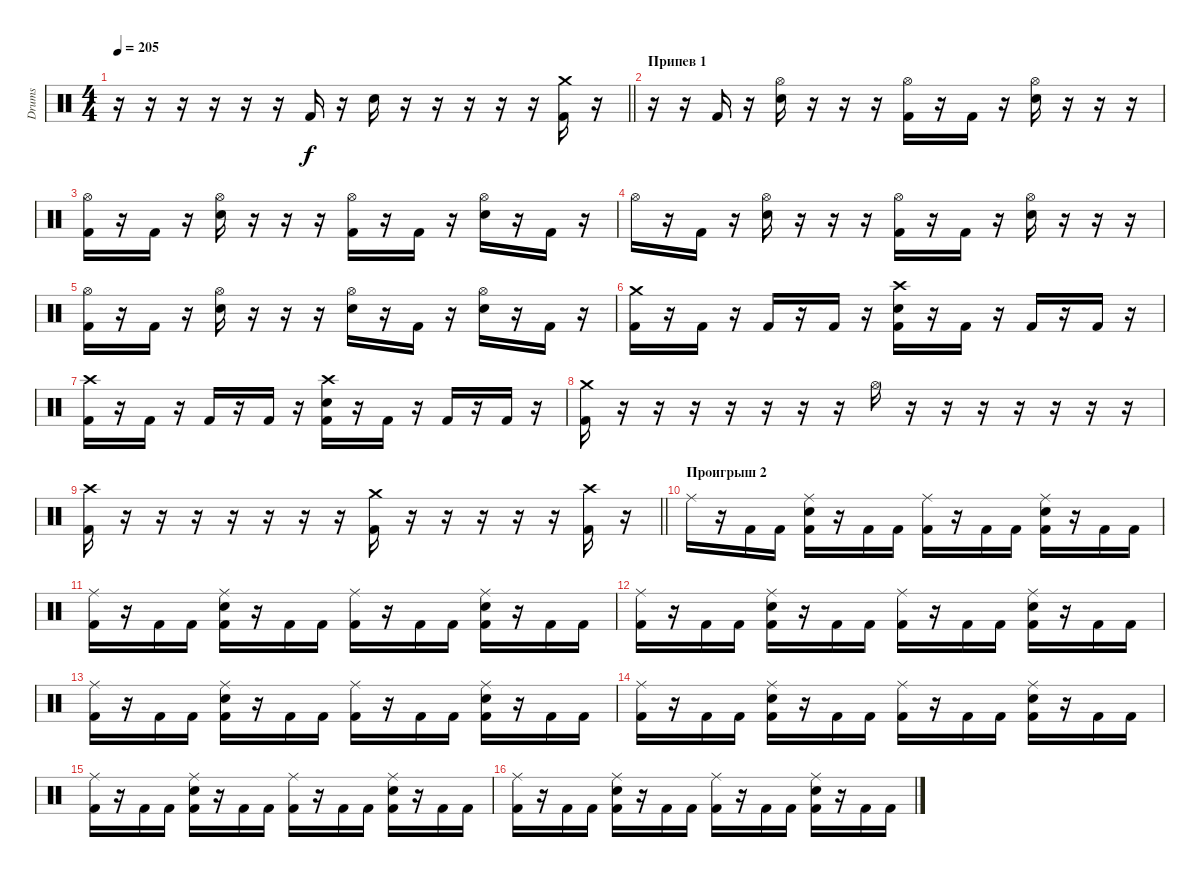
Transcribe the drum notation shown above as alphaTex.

\track ("Drums" "Drums") {instrument percussion}
\staff {score}
\articulation defaults
\ts (4 4)
\tempo 205
\clef neutral
\barLineRight lightlight
\ks c
r.16{dy f} r.16 r.16 r.16 r.16 r.16 "Kick (hit) 2".16 r.16 "Electric Snare (hit)".16 r.16 r.16 r.16 r.16 r.16 ("Crash medium (hit)" "Kick (hit) 2").16 r.16 |
\section ("" "Припев 1")
r.16 r.16 "Kick (hit) 2".16 r.16 ("Hi-Hat (open)" "Electric Snare (hit)").16 r.16 r.16 r.16 ("Hi-Hat (open)" "Kick (hit) 2").16 r.16 "Kick (hit) 2".16 r.16 ("Hi-Hat (open)" "Electric Snare (hit)").16 r.16 r.16 r.16 |
("Hi-Hat (open)" "Kick (hit) 2").16 r.16 "Kick (hit) 2".16 r.16 ("Hi-Hat (open)" "Electric Snare (hit)").16 r.16 r.16 r.16 ("Hi-Hat (open)" "Kick (hit) 2").16 r.16 "Kick (hit) 2".16 r.16 ("Hi-Hat (open)" "Electric Snare (hit)").16 r.16 "Kick (hit) 2".16 r.16 |
"Hi-Hat (open)".16 r.16 "Kick (hit) 2".16 r.16 ("Hi-Hat (open)" "Electric Snare (hit)").16 r.16 r.16 r.16 ("Hi-Hat (open)" "Kick (hit) 2").16 r.16 "Kick (hit) 2".16 r.16 ("Hi-Hat (open)" "Electric Snare (hit)").16 r.16 r.16 r.16 |
("Hi-Hat (open)" "Kick (hit) 2").16 r.16 "Kick (hit) 2".16 r.16 ("Hi-Hat (open)" "Electric Snare (hit)").16 r.16 r.16 r.16 ("Hi-Hat (open)" "Electric Snare (hit)").16 r.16 "Kick (hit) 2".16 r.16 ("Hi-Hat (open)" "Electric Snare (hit)").16 r.16 "Kick (hit) 2".16 r.16 |
("Crash medium (hit)" "Kick (hit) 2").16 r.16 "Kick (hit) 2".16 r.16 "Kick (hit) 2".16 r.16 "Kick (hit) 2".16 r.16 ("Crash high (hit)" "Electric Snare (hit)" "Kick (hit) 2").16 r.16 "Kick (hit) 2".16 r.16 "Kick (hit) 2".16 r.16 "Kick (hit) 2".16 r.16 |
("Crash high (hit)" "Kick (hit) 2").16 r.16 "Kick (hit) 2".16 r.16 "Kick (hit) 2".16 r.16 "Kick (hit) 2".16 r.16 ("Crash high (hit)" "Electric Snare (hit)" "Kick (hit) 2").16 r.16 "Kick (hit) 2".16 r.16 "Kick (hit) 2".16 r.16 "Kick (hit) 2".16 r.16 |
("Crash medium (hit)" "Kick (hit) 2").16 r.16 r.16 r.16 r.16 r.16 r.16 r.16 "Hi-Hat (open)".16 r.16 r.16 r.16 r.16 r.16 r.16 r.16 |
\barLineRight lightlight
("Crash high (hit)" "Kick (hit) 2").16 r.16 r.16 r.16 r.16 r.16 r.16 r.16 ("Crash medium (hit)" "Kick (hit) 2").16 r.16 r.16 r.16 r.16 r.16 ("Crash high (hit)" "Kick (hit) 2").16 r.16 |
\section ("" "Проигрыш 2")
"Ride (middle)".16 r.16 "Kick (hit) 2".16 "Kick (hit) 2".16 ("Ride (middle)" "Electric Snare (hit)" "Kick (hit) 2").16 r.16 "Kick (hit) 2".16 "Kick (hit) 2".16 ("Ride (middle)" "Kick (hit) 2").16 r.16 "Kick (hit) 2".16 "Kick (hit) 2".16 ("Ride (middle)" "Electric Snare (hit)" "Kick (hit) 2").16 r.16 "Kick (hit) 2".16 "Kick (hit) 2".16 |
("Ride (middle)" "Kick (hit) 2").16 r.16 "Kick (hit) 2".16 "Kick (hit) 2".16 ("Ride (middle)" "Electric Snare (hit)" "Kick (hit) 2").16 r.16 "Kick (hit) 2".16 "Kick (hit) 2".16 ("Ride (middle)" "Kick (hit) 2").16 r.16 "Kick (hit) 2".16 "Kick (hit) 2".16 ("Ride (middle)" "Electric Snare (hit)" "Kick (hit) 2").16 r.16 "Kick (hit) 2".16 "Kick (hit) 2".16 |
("Ride (middle)" "Kick (hit) 2").16 r.16 "Kick (hit) 2".16 "Kick (hit) 2".16 ("Ride (middle)" "Electric Snare (hit)" "Kick (hit) 2").16 r.16 "Kick (hit) 2".16 "Kick (hit) 2".16 ("Ride (middle)" "Kick (hit) 2").16 r.16 "Kick (hit) 2".16 "Kick (hit) 2".16 ("Ride (middle)" "Electric Snare (hit)" "Kick (hit) 2").16 r.16 "Kick (hit) 2".16 "Kick (hit) 2".16 |
("Ride (middle)" "Kick (hit) 2").16 r.16 "Kick (hit) 2".16 "Kick (hit) 2".16 ("Ride (middle)" "Electric Snare (hit)" "Kick (hit) 2").16 r.16 "Kick (hit) 2".16 "Kick (hit) 2".16 ("Ride (middle)" "Kick (hit) 2").16 r.16 "Kick (hit) 2".16 "Kick (hit) 2".16 ("Ride (middle)" "Electric Snare (hit)" "Kick (hit) 2").16 r.16 "Kick (hit) 2".16 "Kick (hit) 2".16 |
("Ride (middle)" "Kick (hit) 2").16 r.16 "Kick (hit) 2".16 "Kick (hit) 2".16 ("Ride (middle)" "Electric Snare (hit)" "Kick (hit) 2").16 r.16 "Kick (hit) 2".16 "Kick (hit) 2".16 ("Ride (middle)" "Kick (hit) 2").16 r.16 "Kick (hit) 2".16 "Kick (hit) 2".16 ("Ride (middle)" "Electric Snare (hit)" "Kick (hit) 2").16 r.16 "Kick (hit) 2".16 "Kick (hit) 2".16 |
("Ride (middle)" "Kick (hit) 2").16 r.16 "Kick (hit) 2".16 "Kick (hit) 2".16 ("Ride (middle)" "Electric Snare (hit)" "Kick (hit) 2").16 r.16 "Kick (hit) 2".16 "Kick (hit) 2".16 ("Ride (middle)" "Kick (hit) 2").16 r.16 "Kick (hit) 2".16 "Kick (hit) 2".16 ("Ride (middle)" "Electric Snare (hit)" "Kick (hit) 2").16 r.16 "Kick (hit) 2".16 "Kick (hit) 2".16 |
("Ride (middle)" "Kick (hit) 2").16 r.16 "Kick (hit) 2".16 "Kick (hit) 2".16 ("Ride (middle)" "Electric Snare (hit)" "Kick (hit) 2").16 r.16 "Kick (hit) 2".16 "Kick (hit) 2".16 ("Ride (middle)" "Kick (hit) 2").16 r.16 "Kick (hit) 2".16 "Kick (hit) 2".16 ("Ride (middle)" "Electric Snare (hit)" "Kick (hit) 2").16 r.16 "Kick (hit) 2".16 "Kick (hit) 2".16
